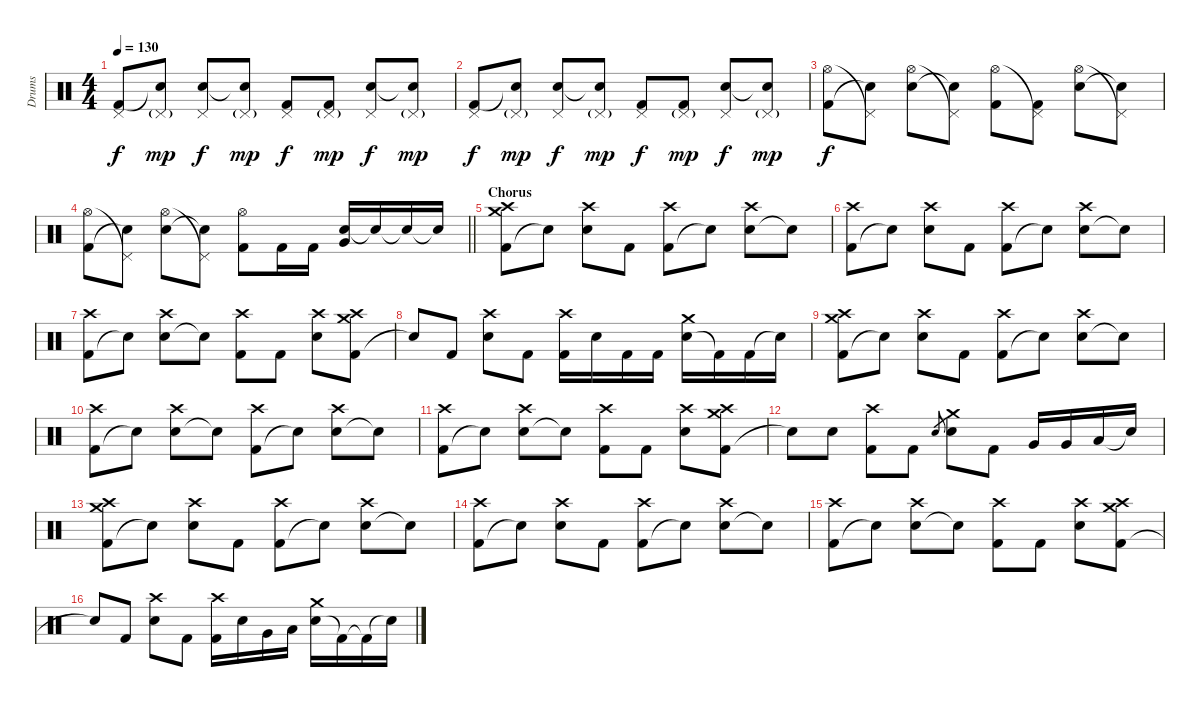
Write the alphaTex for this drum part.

\track ("Drums" "Drums") {instrument percussion}
\staff {score}
\articulation defaults
\ts (4 4)
\tempo 130
\clef neutral
\ks c
("Kick (hit) 2" "Pedal Hi-Hat (hit)").8{dy f} ("Snare (hit)"{t} "Pedal Hi-Hat (hit)"{g}).8{dy mp} ("Electric Snare (hit)" "Pedal Hi-Hat (hit)").8{dy f} ("Snare (hit)"{t} "Pedal Hi-Hat (hit)"{g}).8{dy mp} ("Kick (hit) 2" "Pedal Hi-Hat (hit)").8{dy f} ("Kick (hit) 2" "Pedal Hi-Hat (hit)"{g}).8{dy mp} ("Electric Snare (hit)" "Pedal Hi-Hat (hit)").8{dy f} ("Snare (hit)"{t} "Pedal Hi-Hat (hit)"{g}).8{dy mp} |
("Kick (hit) 2" "Pedal Hi-Hat (hit)").8{dy f} ("Snare (hit)"{t} "Pedal Hi-Hat (hit)"{g}).8{dy mp} ("Electric Snare (hit)" "Pedal Hi-Hat (hit)").8{dy f} ("Snare (hit)"{t} "Pedal Hi-Hat (hit)"{g}).8{dy mp} ("Kick (hit) 2" "Pedal Hi-Hat (hit)").8{dy f} ("Kick (hit) 2" "Pedal Hi-Hat (hit)"{g}).8{dy mp} ("Electric Snare (hit)" "Pedal Hi-Hat (hit)").8{dy f} ("Snare (hit)"{t} "Pedal Hi-Hat (hit)"{g}).8{dy mp} |
("Kick (hit) 2" "Hi-Hat (open)").8{dy f} ("Snare (hit)"{t} "Pedal Hi-Hat (hit)"{t}).8 ("Electric Snare (hit)" "Hi-Hat (open)").8 ("Snare (hit)"{t} "Pedal Hi-Hat (hit)"{t}).8 ("Kick (hit) 2" "Hi-Hat (open)").8 ("Kick (hit) 2" "Pedal Hi-Hat (hit)"{t}).8 ("Electric Snare (hit)" "Hi-Hat (open)").8 ("Snare (hit)"{t} "Pedal Hi-Hat (hit)"{t}).8 |
\barLineRight lightlight
("Kick (hit) 2" "Hi-Hat (open)").8 ("Snare (hit)"{t} "Pedal Hi-Hat (hit)"{t}).8 ("Electric Snare (hit)" "Hi-Hat (open)").8 ("Snare (hit)"{t} "Pedal Hi-Hat (hit)"{t}).8 ("Kick (hit) 2" "Hi-Hat (open)").8 "Kick (hit) 2".16 "Kick (hit) 2".16 ("Electric Snare (hit)" "Very Low Tom (hit)").16 "Snare (hit)"{t}.16 "Snare (hit)"{t}.16 "Snare (hit)"{t}.16 |
\section ("" "Chorus")
("Kick (hit) 2" "Crash medium (hit)" "Crash high (hit)").8 "Snare (hit)"{t}.8 ("Electric Snare (hit)" "Crash high (hit)").8 "Kick (hit) 2".8 ("Kick (hit) 2" "Crash high (hit)").8 "Snare (hit)"{t}.8 ("Electric Snare (hit)" "Crash high (hit)").8 "Snare (hit)"{t}.8 |
("Kick (hit) 2" "Crash high (hit)").8 "Snare (hit)"{t}.8 ("Electric Snare (hit)" "Crash high (hit)").8 "Kick (hit) 2".8 ("Kick (hit) 2" "Crash high (hit)").8 "Snare (hit)"{t}.8 ("Electric Snare (hit)" "Crash high (hit)").8 "Snare (hit)"{t}.8 |
("Kick (hit) 2" "Crash high (hit)").8 "Snare (hit)"{t}.8 ("Electric Snare (hit)" "Crash high (hit)").8 "Snare (hit)"{t}.8 ("Kick (hit) 2" "Crash high (hit)").8 "Kick (hit) 2".8 ("Electric Snare (hit)" "Crash high (hit)").8 ("Kick (hit) 2" "Crash medium (hit)" "Crash high (hit)").8 |
"Snare (hit)"{t}.8 "Kick (hit) 2".8 ("Electric Snare (hit)" "Crash high (hit)").8 "Kick (hit) 2".8 ("Kick (hit) 2" "Crash high (hit)").16 "Electric Snare (hit)".16 "Kick (hit) 2".16 "Kick (hit) 2".16 ("Electric Snare (hit)" "Crash medium (hit)").16 "Kick (hit) 2"{t}.16 "Kick (hit) 2".16 "Snare (hit)"{t}.16 |
("Kick (hit) 2" "Crash medium (hit)" "Crash high (hit)").8 "Snare (hit)"{t}.8 ("Electric Snare (hit)" "Crash high (hit)").8 "Kick (hit) 2".8 ("Kick (hit) 2" "Crash high (hit)").8 "Snare (hit)"{t}.8 ("Electric Snare (hit)" "Crash high (hit)").8 "Snare (hit)"{t}.8 |
("Kick (hit) 2" "Crash high (hit)").8 "Snare (hit)"{t}.8 ("Electric Snare (hit)" "Crash high (hit)").8 "Snare (hit)"{t}.8 ("Kick (hit) 2" "Crash high (hit)").8 "Snare (hit)"{t}.8 ("Electric Snare (hit)" "Crash high (hit)").8 "Snare (hit)"{t}.8 |
("Kick (hit) 2" "Crash high (hit)").8 "Snare (hit)"{t}.8 ("Electric Snare (hit)" "Crash high (hit)").8 "Snare (hit)"{t}.8 ("Kick (hit) 2" "Crash high (hit)").8 "Kick (hit) 2".8 ("Electric Snare (hit)" "Crash high (hit)").8 ("Kick (hit) 2" "Crash medium (hit)" "Crash high (hit)").8 |
"Snare (hit)"{t}.8 "Electric Snare (hit)".8 ("Kick (hit) 2" "Crash high (hit)").8 "Kick (hit) 2".8 "Electric Snare (hit)".8{gr} ("Electric Snare (hit)" "Crash medium (hit)").8 "Kick (hit) 2".8 "Very Low Tom (hit)".16 "Very Low Tom (hit)".16 "Low Floor Tom (hit)".16 "Snare (hit)"{t}.16 |
("Kick (hit) 2" "Crash medium (hit)" "Crash high (hit)").8 "Snare (hit)"{t}.8 ("Electric Snare (hit)" "Crash high (hit)").8 "Kick (hit) 2".8 ("Kick (hit) 2" "Crash high (hit)").8 "Snare (hit)"{t}.8 ("Electric Snare (hit)" "Crash high (hit)").8 "Snare (hit)"{t}.8 |
("Kick (hit) 2" "Crash high (hit)").8 "Snare (hit)"{t}.8 ("Electric Snare (hit)" "Crash high (hit)").8 "Kick (hit) 2".8 ("Kick (hit) 2" "Crash high (hit)").8 "Snare (hit)"{t}.8 ("Electric Snare (hit)" "Crash high (hit)").8 "Snare (hit)"{t}.8 |
("Kick (hit) 2" "Crash high (hit)").8 "Snare (hit)"{t}.8 ("Electric Snare (hit)" "Crash high (hit)").8 "Snare (hit)"{t}.8 ("Kick (hit) 2" "Crash high (hit)").8 "Kick (hit) 2".8 ("Electric Snare (hit)" "Crash high (hit)").8 ("Kick (hit) 2" "Crash medium (hit)" "Crash high (hit)").8 |
"Snare (hit)"{t}.8 "Kick (hit) 2".8 ("Electric Snare (hit)" "Crash high (hit)").8 "Kick (hit) 2".8 ("Kick (hit) 2" "Crash high (hit)").16 "Electric Snare (hit)".16 "Very Low Tom (hit)".16 "Low Floor Tom (hit)".16 ("Electric Snare (hit)" "Crash medium (hit)").16 "Kick (hit) 2"{t}.16 "Kick (hit) 2"{t}.16 "Snare (hit)"{t}.16
